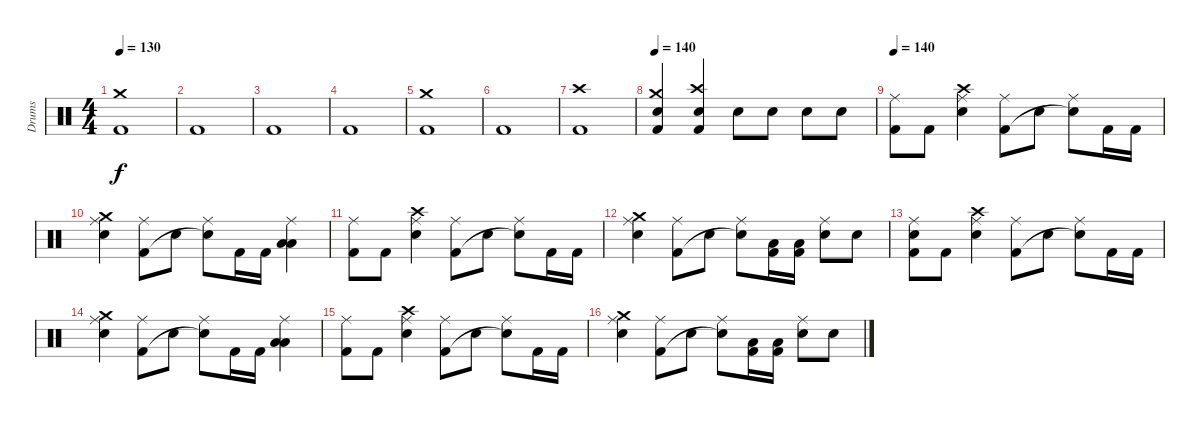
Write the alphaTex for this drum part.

\track ("Drums" "Drums") {instrument percussion}
\staff {score}
\articulation defaults
\ts (4 4)
\tempo 130
\clef neutral
\ks c
("Kick (hit) 2" "Crash medium (hit)").1{dy f} |
"Kick (hit) 2".1 |
"Kick (hit) 2".1 |
"Kick (hit) 2".1 |
("Kick (hit) 2" "Crash medium (hit)").1 |
"Kick (hit) 2".1 |
("Kick (hit) 2" "Crash high (hit)").1 |
\tempo 140
("Kick (hit) 2" "Crash medium (hit)" "Electric Snare (hit)").4 ("Kick (hit) 2" "Crash high (hit)" "Electric Snare (hit)").4 "Electric Snare (hit)".8 "Electric Snare (hit)".8 "Electric Snare (hit)".8 "Electric Snare (hit)".8 |
\tempo 140
("Ride (middle)" "Kick (hit) 2").8 "Kick (hit) 2".8 ("Ride (middle)" "Electric Snare (hit)" "Crash high (hit)").4 ("Ride (middle)" "Kick (hit) 2").8 "Electric Snare (hit)".8 ("Ride (middle)" "Electric Snare (hit)"{t}).8 "Kick (hit) 2".16 "Kick (hit) 2".16 |
("Ride (middle)" "Electric Snare (hit)" "Crash medium (hit)").4 ("Ride (middle)" "Kick (hit) 2").8 "Electric Snare (hit)".8 ("Ride (middle)" "Electric Snare (hit)"{t}).8 "Kick (hit) 2".16 "Kick (hit) 2".16 ("Ride (middle)" "Low Tom (hit)" "Low Tom (hit)").4 |
("Ride (middle)" "Kick (hit) 2").8 "Kick (hit) 2".8 ("Ride (middle)" "Electric Snare (hit)" "Crash high (hit)").4 ("Ride (middle)" "Kick (hit) 2").8 "Electric Snare (hit)".8 ("Ride (middle)" "Electric Snare (hit)"{t}).8 "Kick (hit) 2".16 "Kick (hit) 2".16 |
("Ride (middle)" "Electric Snare (hit)" "Crash medium (hit)").4 ("Ride (middle)" "Kick (hit) 2").8 "Electric Snare (hit)".8 ("Ride (middle)" "Electric Snare (hit)"{t}).8 ("Low Floor Tom (hit)" "Kick (hit) 2").16 ("Low Floor Tom (hit)" "Kick (hit) 2").16 ("Ride (middle)" "Electric Snare (hit)").8 "Electric Snare (hit)".8 |
("Ride (middle)" "Kick (hit) 2" "Electric Snare (hit)").8 "Kick (hit) 2".8 ("Ride (middle)" "Electric Snare (hit)" "Crash high (hit)").4 ("Ride (middle)" "Kick (hit) 2").8 "Electric Snare (hit)".8 ("Ride (middle)" "Electric Snare (hit)"{t}).8 "Kick (hit) 2".16 "Kick (hit) 2".16 |
("Ride (middle)" "Electric Snare (hit)" "Crash medium (hit)").4 ("Ride (middle)" "Kick (hit) 2").8 "Electric Snare (hit)".8 ("Ride (middle)" "Electric Snare (hit)"{t}).8 "Kick (hit) 2".16 "Kick (hit) 2".16 ("Ride (middle)" "Low Tom (hit)" "Low Tom (hit)").4 |
("Ride (middle)" "Kick (hit) 2").8 "Kick (hit) 2".8 ("Ride (middle)" "Electric Snare (hit)" "Crash high (hit)").4 ("Ride (middle)" "Kick (hit) 2").8 "Electric Snare (hit)".8 ("Ride (middle)" "Electric Snare (hit)"{t}).8 "Kick (hit) 2".16 "Kick (hit) 2".16 |
("Ride (middle)" "Electric Snare (hit)" "Crash medium (hit)").4 ("Ride (middle)" "Kick (hit) 2").8 "Electric Snare (hit)".8 ("Ride (middle)" "Electric Snare (hit)"{t}).8 ("Low Floor Tom (hit)" "Kick (hit) 2").16 ("Low Floor Tom (hit)" "Kick (hit) 2").16 ("Ride (middle)" "Electric Snare (hit)").8 "Electric Snare (hit)".8
